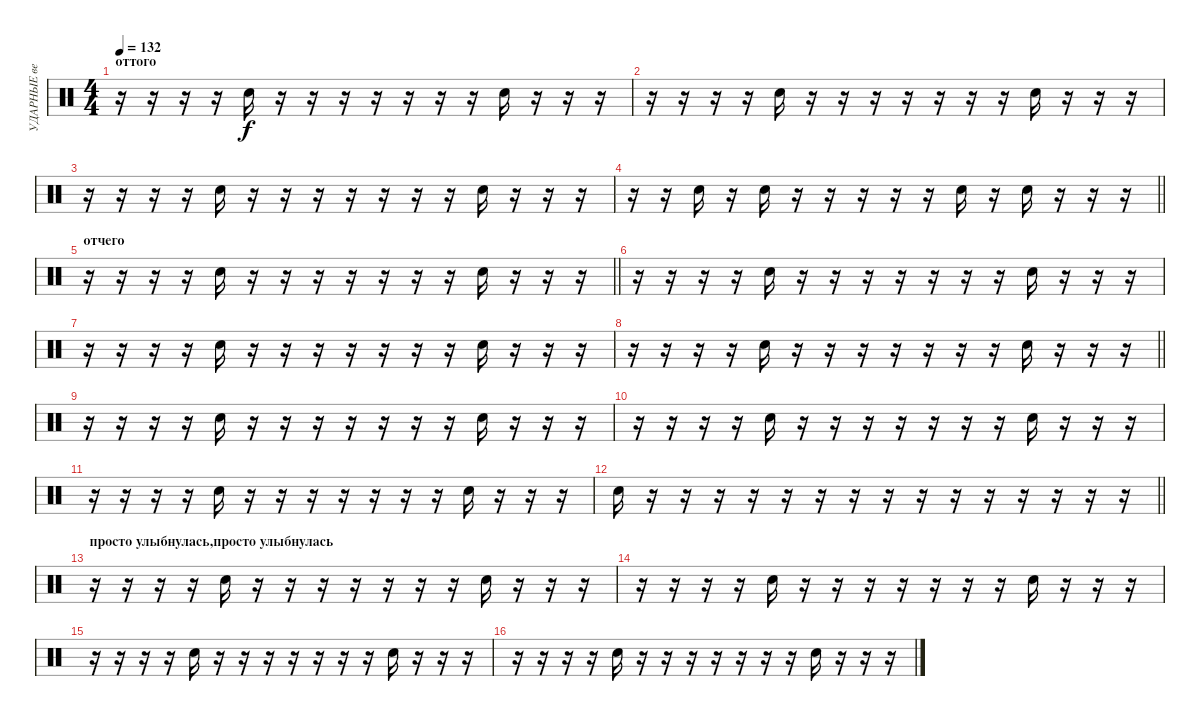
\track ("УДАРНЫЕ ведущий" "УДАРНЫЕ ве") {instrument percussion}
\staff {score}
\articulation defaults
\ts (4 4)
\section ("" "оттого")
\tempo 132
\clef neutral
\ks c
r.16{dy f} r.16 r.16 r.16 "Snare (hit) 2".16 r.16 r.16 r.16 r.16 r.16 r.16 r.16 "Snare (hit) 2".16 r.16 r.16 r.16 |
r.16 r.16 r.16 r.16 "Snare (hit) 2".16 r.16 r.16 r.16 r.16 r.16 r.16 r.16 "Snare (hit) 2".16 r.16 r.16 r.16 |
r.16 r.16 r.16 r.16 "Snare (hit) 2".16 r.16 r.16 r.16 r.16 r.16 r.16 r.16 "Snare (hit) 2".16 r.16 r.16 r.16 |
\barLineRight lightlight
r.16 r.16 "Snare (hit) 2".16 r.16 "Snare (hit) 2".16 r.16 r.16 r.16 r.16 r.16 "Snare (hit) 2".16 r.16 "Snare (hit) 2".16 r.16 r.16 r.16 |
\section ("" "отчего")
\barLineRight lightlight
r.16 r.16 r.16 r.16 "Snare (hit) 2".16 r.16 r.16 r.16 r.16 r.16 r.16 r.16 "Snare (hit) 2".16 r.16 r.16 r.16 |
r.16 r.16 r.16 r.16 "Snare (hit) 2".16 r.16 r.16 r.16 r.16 r.16 r.16 r.16 "Snare (hit) 2".16 r.16 r.16 r.16 |
r.16 r.16 r.16 r.16 "Snare (hit) 2".16 r.16 r.16 r.16 r.16 r.16 r.16 r.16 "Snare (hit) 2".16 r.16 r.16 r.16 |
\barLineRight lightlight
r.16 r.16 r.16 r.16 "Snare (hit) 2".16 r.16 r.16 r.16 r.16 r.16 r.16 r.16 "Snare (hit) 2".16 r.16 r.16 r.16 |
r.16 r.16 r.16 r.16 "Snare (hit) 2".16 r.16 r.16 r.16 r.16 r.16 r.16 r.16 "Snare (hit) 2".16 r.16 r.16 r.16 |
r.16 r.16 r.16 r.16 "Snare (hit) 2".16 r.16 r.16 r.16 r.16 r.16 r.16 r.16 "Snare (hit) 2".16 r.16 r.16 r.16 |
r.16 r.16 r.16 r.16 "Snare (hit) 2".16 r.16 r.16 r.16 r.16 r.16 r.16 r.16 "Snare (hit) 2".16 r.16 r.16 r.16 |
\barLineRight lightlight "Snare (hit) 2".16
r.16 r.16 r.16 r.16 r.16 r.16 r.16 r.16 r.16 r.16 r.16 r.16 r.16 r.16 r.16 |
\section ("" "просто улыбнулась,просто улыбнулась")
r.16 r.16 r.16 r.16 "Snare (hit) 2".16 r.16 r.16 r.16 r.16 r.16 r.16 r.16 "Snare (hit) 2".16 r.16 r.16 r.16 |
r.16 r.16 r.16 r.16 "Snare (hit) 2".16 r.16 r.16 r.16 r.16 r.16 r.16 r.16 "Snare (hit) 2".16 r.16 r.16 r.16 |
r.16 r.16 r.16 r.16 "Snare (hit) 2".16 r.16 r.16 r.16 r.16 r.16 r.16 r.16 "Snare (hit) 2".16 r.16 r.16 r.16 |
r.16 r.16 r.16 r.16 "Snare (hit) 2".16 r.16 r.16 r.16 r.16 r.16 r.16 r.16 "Snare (hit) 2".16 r.16 r.16 r.16
